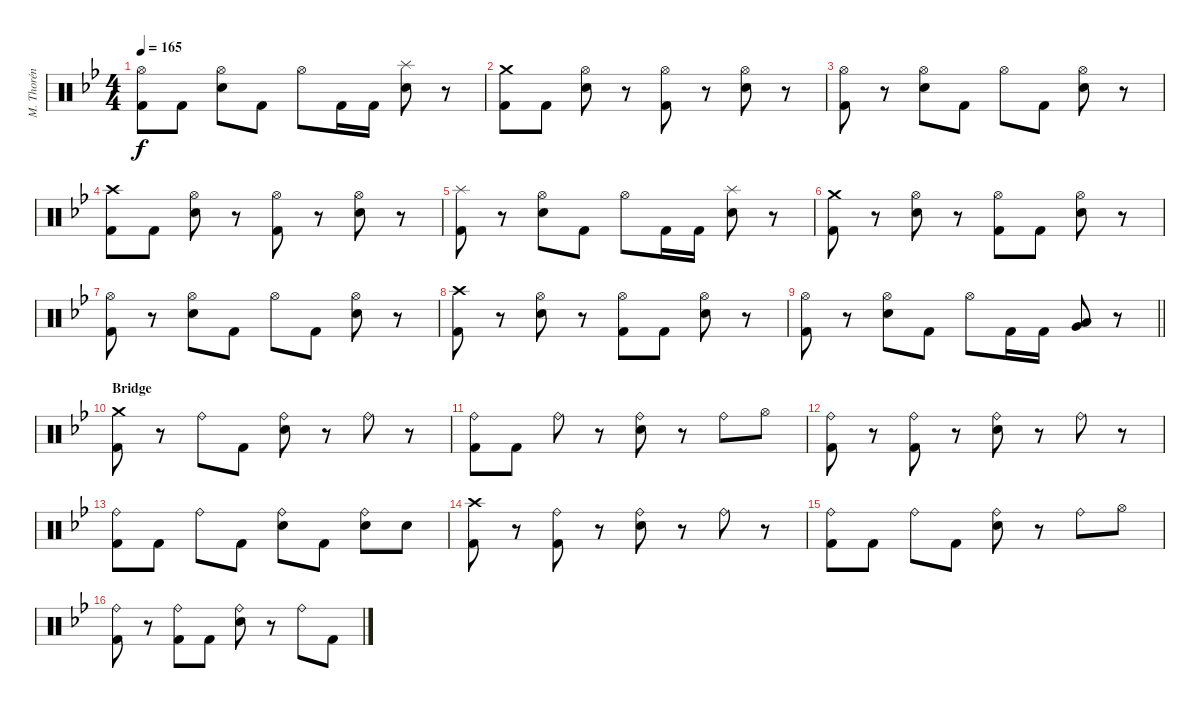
\track ("M. Thorén (Drums)" "M. Thorén ") {instrument percussion}
\staff {score}
\articulation defaults
\ts (4 4)
\tempo 165
\clef neutral
\ks gminor
("Hi-Hat (open)" "Kick (hit) 2").8{dy f} "Kick (hit) 2".8 ("Hi-Hat (open)" "Electric Snare (hit)").8 "Kick (hit) 2".8 "Hi-Hat (open)".8 "Kick (hit) 2".16 "Kick (hit) 2".16 ("Splash (hit)" "Electric Snare (hit)").8 r.8 |
("Crash medium (hit)" "Kick (hit) 2").8 "Kick (hit) 2".8 ("Hi-Hat (open)" "Electric Snare (hit)").8 r.8 ("Hi-Hat (open)" "Kick (hit) 2").8 r.8 ("Hi-Hat (open)" "Electric Snare (hit)").8 r.8 |
("Hi-Hat (open)" "Kick (hit) 2").8 r.8 ("Hi-Hat (open)" "Electric Snare (hit)").8 "Kick (hit) 2".8 "Hi-Hat (open)".8 "Kick (hit) 2".8 ("Hi-Hat (open)" "Electric Snare (hit)").8 r.8 |
("Crash high (hit)" "Kick (hit) 2").8 "Kick (hit) 2".8 ("Hi-Hat (open)" "Electric Snare (hit)").8 r.8 ("Hi-Hat (open)" "Kick (hit) 2").8 r.8 ("Hi-Hat (open)" "Electric Snare (hit)").8 r.8 |
("Splash (hit)" "Kick (hit) 2").8 r.8 ("Hi-Hat (open)" "Electric Snare (hit)").8 "Kick (hit) 2".8 "Hi-Hat (open)".8 "Kick (hit) 2".16 "Kick (hit) 2".16 ("Splash (hit)" "Electric Snare (hit)").8 r.8 |
("Crash medium (hit)" "Kick (hit) 2").8 r.8 ("Hi-Hat (open)" "Electric Snare (hit)").8 r.8 ("Hi-Hat (open)" "Kick (hit) 2").8 "Kick (hit) 2".8 ("Hi-Hat (open)" "Electric Snare (hit)").8 r.8 |
("Hi-Hat (open)" "Kick (hit) 2").8 r.8 ("Hi-Hat (open)" "Electric Snare (hit)").8 "Kick (hit) 2".8 "Hi-Hat (open)".8 "Kick (hit) 2".8 ("Hi-Hat (open)" "Electric Snare (hit)").8 r.8 |
("Crash high (hit)" "Kick (hit) 2").8 r.8 ("Hi-Hat (open)" "Electric Snare (hit)").8 r.8 ("Hi-Hat (open)" "Kick (hit) 2").8 "Kick (hit) 2".8 ("Hi-Hat (open)" "Electric Snare (hit)").8 r.8 |
\barLineRight lightlight
("Hi-Hat (open)" "Kick (hit) 2").8 r.8 ("Hi-Hat (open)" "Electric Snare (hit)").8 "Kick (hit) 2".8 "Hi-Hat (open)".8 "Kick (hit) 2".16 "Kick (hit) 2".16 ("Very Low Tom (hit)" "Low Floor Tom (hit)").8 r.8 |
\section ("" "Bridge")
("Crash medium (hit)" "Kick (hit) 2").8 r.8 "Ride (bell)".8 "Kick (hit) 2".8 ("Ride (bell)" "Electric Snare (hit)").8 r.8 "Ride (bell)".8 r.8 |
("Ride (bell)" "Kick (hit) 2").8 "Kick (hit) 2".8 "Ride (bell)".8 r.8 ("Ride (bell)" "Electric Snare (hit)").8 r.8 "Ride (bell)".8 "Hi-Hat (open)".8 |
("Ride (bell)" "Kick (hit) 2").8 r.8 ("Ride (bell)" "Kick (hit) 2").8 r.8 ("Ride (bell)" "Electric Snare (hit)").8 r.8 "Ride (bell)".8 r.8 |
("Ride (bell)" "Kick (hit) 2").8 "Kick (hit) 2".8 "Ride (bell)".8 "Kick (hit) 2".8 ("Ride (bell)" "Electric Snare (hit)").8 "Kick (hit) 2".8 ("Ride (bell)" "Electric Snare (hit)").8 "Electric Snare (hit)".8 |
("Crash high (hit)" "Kick (hit) 2").8 r.8 ("Ride (bell)" "Kick (hit) 2").8 r.8 ("Ride (bell)" "Electric Snare (hit)").8 r.8 "Ride (bell)".8 r.8 |
("Ride (bell)" "Kick (hit) 2").8 "Kick (hit) 2".8 "Ride (bell)".8 "Kick (hit) 2".8 ("Ride (bell)" "Electric Snare (hit)").8 r.8 "Ride (bell)".8 "Hi-Hat (open)".8 |
("Ride (bell)" "Kick (hit) 2").8 r.8 ("Ride (bell)" "Kick (hit) 2").8 "Kick (hit) 2".8 ("Ride (bell)" "Electric Snare (hit)").8 r.8 "Ride (bell)".8 "Kick (hit) 2".8
